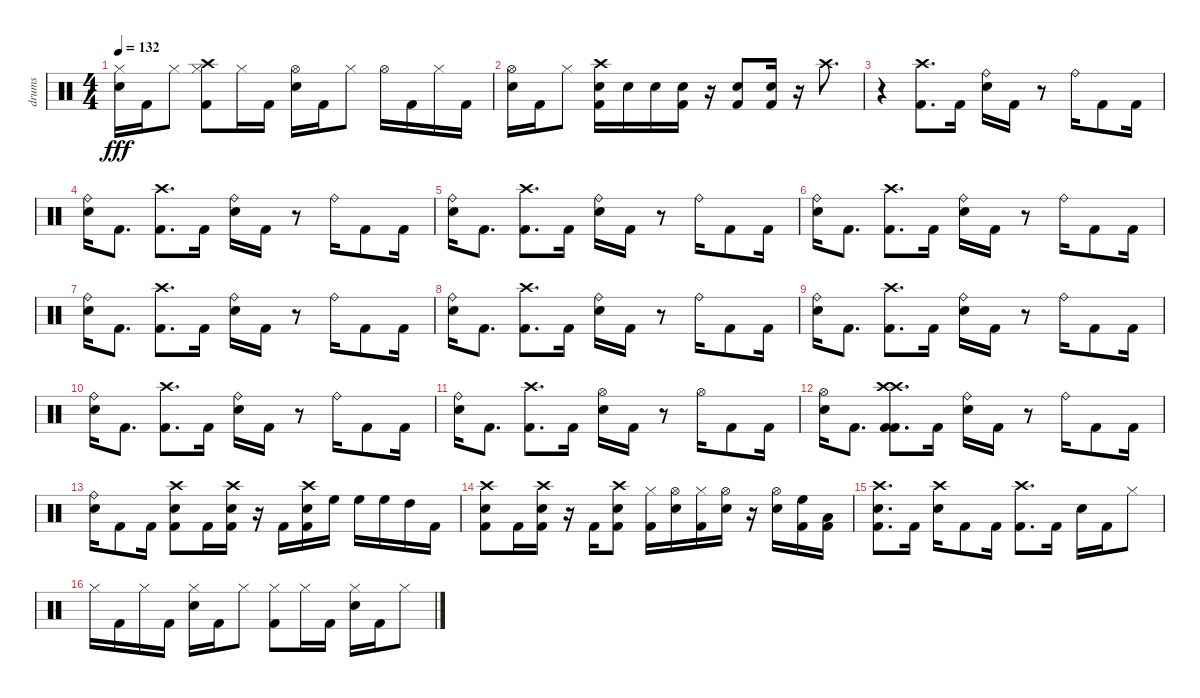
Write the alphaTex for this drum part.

\track ("drums" "drums") {instrument percussion}
\staff {score}
\articulation defaults
\ts (4 4)
\tempo 132
\clef neutral
\ks c
("Snare (hit) 2" "Hi-Hat (closed)").16{dy fff} "Kick (hit) 2".16 "Hi-Hat (closed)".8 ("Kick (hit) 2" "Crash high (hit)" "Hi-Hat (closed)").8 "Hi-Hat (closed)".16 "Kick (hit) 2".16 ("Snare (hit) 2" "Hi-Hat (open)").16 "Kick (hit) 2".16 "Hi-Hat (closed)".8 "Hi-Hat (open)".16 "Kick (hit) 2".16 "Hi-Hat (closed)".16 "Kick (hit) 2".16 |
("Snare (hit) 2" "Hi-Hat (open)").16 "Kick (hit) 2".16 "Hi-Hat (closed)".8 ("Kick (hit) 2" "Snare (hit) 2" "Crash high (hit)").16 "Snare (hit) 2".16 "Snare (hit) 2".16 ("Kick (hit) 2" "Snare (hit) 2").16 r.16 ("Kick (hit) 2" "Snare (hit) 2").8 ("Kick (hit) 2" "Snare (hit) 2").16 r.16 "Crash high (hit)".8{d} |
r.4 ("Kick (hit) 2" "Crash high (hit)").8{d} "Kick (hit) 2".16 ("Snare (hit) 2" "Ride (bell)").16 "Kick (hit) 2".16 r.8 "Ride (bell)".16 "Kick (hit) 2".8 "Kick (hit) 2".16 |
("Snare (hit) 2" "Ride (bell)").16 "Kick (hit) 2".8{d} ("Kick (hit) 2" "Crash high (hit)").8{d} "Kick (hit) 2".16 ("Snare (hit) 2" "Ride (bell)").16 "Kick (hit) 2".16 r.8 "Ride (bell)".16 "Kick (hit) 2".8 "Kick (hit) 2".16 |
("Snare (hit) 2" "Ride (bell)").16 "Kick (hit) 2".8{d} ("Kick (hit) 2" "Crash high (hit)").8{d} "Kick (hit) 2".16 ("Snare (hit) 2" "Ride (bell)").16 "Kick (hit) 2".16 r.8 "Ride (bell)".16 "Kick (hit) 2".8 "Kick (hit) 2".16 |
("Snare (hit) 2" "Ride (bell)").16 "Kick (hit) 2".8{d} ("Kick (hit) 2" "Crash high (hit)").8{d} "Kick (hit) 2".16 ("Snare (hit) 2" "Ride (bell)").16 "Kick (hit) 2".16 r.8 "Ride (bell)".16 "Kick (hit) 2".8 "Kick (hit) 2".16 |
("Snare (hit) 2" "Ride (bell)").16 "Kick (hit) 2".8{d} ("Kick (hit) 2" "Crash high (hit)").8{d} "Kick (hit) 2".16 ("Snare (hit) 2" "Ride (bell)").16 "Kick (hit) 2".16 r.8 "Ride (bell)".16 "Kick (hit) 2".8 "Kick (hit) 2".16 |
("Snare (hit) 2" "Ride (bell)").16 "Kick (hit) 2".8{d} ("Kick (hit) 2" "Crash high (hit)").8{d} "Kick (hit) 2".16 ("Snare (hit) 2" "Ride (bell)").16 "Kick (hit) 2".16 r.8 "Ride (bell)".16 "Kick (hit) 2".8 "Kick (hit) 2".16 |
("Snare (hit) 2" "Ride (bell)").16 "Kick (hit) 2".8{d} ("Kick (hit) 2" "Crash high (hit)").8{d} "Kick (hit) 2".16 ("Snare (hit) 2" "Ride (bell)").16 "Kick (hit) 2".16 r.8 "Ride (bell)".16 "Kick (hit) 2".8 "Kick (hit) 2".16 |
("Snare (hit) 2" "Ride (bell)").16 "Kick (hit) 2".8{d} ("Kick (hit) 2" "Crash high (hit)").8{d} "Kick (hit) 2".16 ("Snare (hit) 2" "Ride (bell)").16 "Kick (hit) 2".16 r.8 "Ride (bell)".16 "Kick (hit) 2".8 "Kick (hit) 2".16 |
("Snare (hit) 2" "Ride (bell)").16 "Kick (hit) 2".8{d} ("Kick (hit) 2" "Crash high (hit)").8{d} "Kick (hit) 2".16 ("Snare (hit) 2" "Hi-Hat (open)").16 "Kick (hit) 2".16 r.8 "Hi-Hat (open)".16 "Kick (hit) 2".8 "Kick (hit) 2".16 |
("Snare (hit) 2" "Hi-Hat (open)").16 "Kick (hit) 2".8{d} ("Kick (hit) 2" "Crash high (hit)" "Kick (hit) 2" "Crash high (hit)").8{d} "Kick (hit) 2".16 ("Snare (hit) 2" "Ride (bell)").16 "Kick (hit) 2".16 r.8 "Ride (bell)".16 "Kick (hit) 2".8 "Kick (hit) 2".16 |
("Snare (hit) 2" "Ride (bell)").16 "Kick (hit) 2".8 "Kick (hit) 2".16 ("Kick (hit) 2" "Snare (hit) 2" "Crash high (hit)").8 "Kick (hit) 2".16 ("Kick (hit) 2" "Snare (hit) 2" "Crash high (hit)").16 r.16 "Kick (hit) 2".16 ("Kick (hit) 2" "Snare (hit) 2" "Crash high (hit)").16 "High Floor Tom (hit)".16 "High Floor Tom (hit)".16 "High Floor Tom (hit)".16 "High Tom (hit)".16 "Kick (hit) 2".16 |
("Kick (hit) 2" "Snare (hit) 2" "Crash high (hit)").8 "Kick (hit) 2".16 ("Kick (hit) 2" "Snare (hit) 2" "Crash high (hit)").16 r.16 "Kick (hit) 2".16 ("Kick (hit) 2" "Snare (hit) 2" "Crash high (hit)").8 ("Kick (hit) 2" "Hi-Hat (closed)").16 ("Snare (hit) 2" "Hi-Hat (open)").16 ("Kick (hit) 2" "Hi-Hat (closed)").16 ("Snare (hit) 2" "Hi-Hat (open)").16 r.16 ("Snare (hit) 2" "Hi-Hat (open)").16 ("Kick (hit) 2" "High Floor Tom (hit)").16 ("Kick (hit) 2" "Low Tom (hit)").16 |
("Kick (hit) 2" "Snare (hit) 2" "Crash high (hit)").8{d} "Kick (hit) 2".16 ("Snare (hit) 2" "Crash high (hit)").16 "Kick (hit) 2".8 "Kick (hit) 2".16 ("Kick (hit) 2" "Crash high (hit)").8{d} "Kick (hit) 2".16 "Snare (hit) 2".16 "Kick (hit) 2".16 "Hi-Hat (closed)".8 |
"Hi-Hat (closed)".16 "Kick (hit) 2".16 "Hi-Hat (closed)".16 "Kick (hit) 2".16 ("Snare (hit) 2" "Hi-Hat (closed)").16 "Kick (hit) 2".16 "Hi-Hat (closed)".8 ("Kick (hit) 2" "Hi-Hat (closed)").8 "Hi-Hat (closed)".16 "Kick (hit) 2".16 ("Snare (hit) 2" "Hi-Hat (closed)").16 "Kick (hit) 2".16 "Hi-Hat (closed)".8
